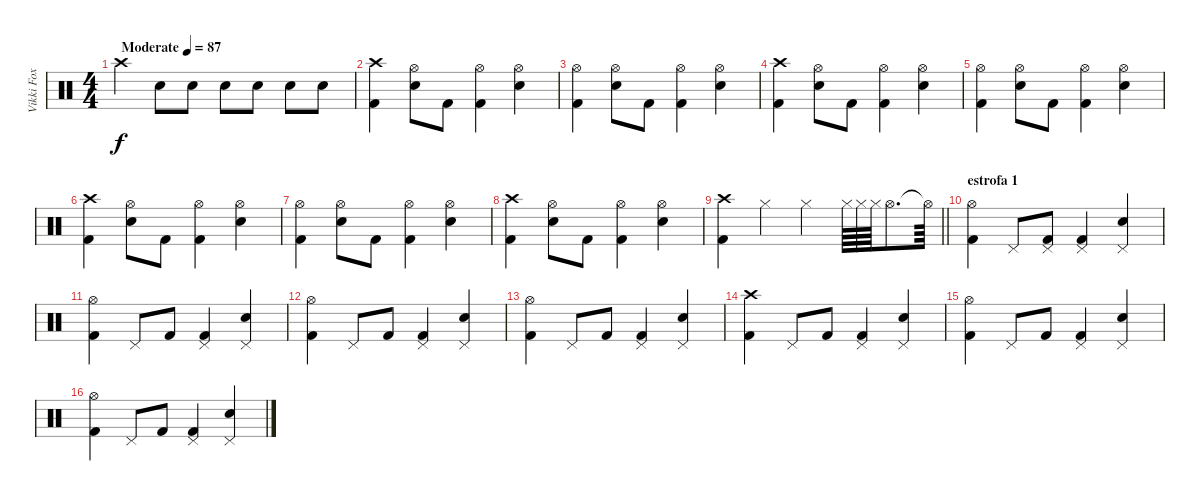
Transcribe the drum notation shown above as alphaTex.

\track ("Vikki Fox" "Vikki Fox") {instrument percussion}
\staff {score}
\articulation defaults
\ts (4 4)
\tempo (87 "Moderate")
\clef neutral
\ks c "Crash high (hit)".4{dy f} "Snare (hit) 2".8 "Snare (hit) 2".8 "Snare (hit) 2".8 "Snare (hit) 2".8 "Snare (hit) 2".8 "Snare (hit) 2".8
|
("Crash high (hit)" "Kick (hit) 2").4 ("Hi-Hat (open)" "Snare (hit) 2").8 "Kick (hit) 2".8 ("Hi-Hat (open)" "Kick (hit) 2").4 ("Hi-Hat (open)" "Snare (hit) 2").4 |
("Hi-Hat (open)" "Kick (hit) 2").4 ("Hi-Hat (open)" "Snare (hit) 2").8 "Kick (hit) 2".8 ("Hi-Hat (open)" "Kick (hit) 2").4 ("Hi-Hat (open)" "Snare (hit) 2").4 |
("Crash high (hit)" "Kick (hit) 2").4 ("Hi-Hat (open)" "Snare (hit) 2").8 "Kick (hit) 2".8 ("Hi-Hat (open)" "Kick (hit) 2").4 ("Hi-Hat (open)" "Snare (hit) 2").4 |
("Hi-Hat (open)" "Kick (hit) 2").4 ("Hi-Hat (open)" "Snare (hit) 2").8 "Kick (hit) 2".8 ("Hi-Hat (open)" "Kick (hit) 2").4 ("Hi-Hat (open)" "Snare (hit) 2").4 |
("Crash high (hit)" "Kick (hit) 2").4 ("Hi-Hat (open)" "Snare (hit) 2").8 "Kick (hit) 2".8 ("Hi-Hat (open)" "Kick (hit) 2").4 ("Hi-Hat (open)" "Snare (hit) 2").4 |
("Hi-Hat (open)" "Kick (hit) 2").4 ("Hi-Hat (open)" "Snare (hit) 2").8 "Kick (hit) 2".8 ("Hi-Hat (open)" "Kick (hit) 2").4 ("Hi-Hat (open)" "Snare (hit) 2").4 |
("Crash high (hit)" "Kick (hit) 2").4 ("Hi-Hat (open)" "Snare (hit) 2").8 "Kick (hit) 2".8 ("Hi-Hat (open)" "Kick (hit) 2").4 ("Hi-Hat (open)" "Snare (hit) 2").4 |
\barLineRight lightlight
("Crash high (hit)" "Kick (hit) 2").4 "Hi-Hat (closed)".4 "Hi-Hat (closed)".4 "Hi-Hat (closed)".64 "Hi-Hat (closed)".64 "Hi-Hat (closed)".64 "Hi-Hat (open)".8{d} "Hi-Hat (open)"{t}.64 |
\section ("" "estrofa 1")
("Hi-Hat (open)" "Kick (hit) 2").4 "Pedal Hi-Hat (hit)".8 ("Pedal Hi-Hat (hit)" "Kick (hit) 2").8 ("Pedal Hi-Hat (hit)" "Kick (hit) 2").4 ("Pedal Hi-Hat (hit)" "Snare (hit) 2").4 |
("Hi-Hat (open)" "Kick (hit) 2").4 "Pedal Hi-Hat (hit)".8 "Kick (hit) 2".8 ("Pedal Hi-Hat (hit)" "Kick (hit) 2").4 ("Pedal Hi-Hat (hit)" "Snare (hit) 2").4 |
("Hi-Hat (open)" "Kick (hit) 2").4 "Pedal Hi-Hat (hit)".8 "Kick (hit) 2".8 ("Pedal Hi-Hat (hit)" "Kick (hit) 2").4 ("Pedal Hi-Hat (hit)" "Snare (hit) 2").4 |
("Hi-Hat (open)" "Kick (hit) 2").4 "Pedal Hi-Hat (hit)".8 "Kick (hit) 2".8 ("Pedal Hi-Hat (hit)" "Kick (hit) 2").4 ("Pedal Hi-Hat (hit)" "Snare (hit) 2").4 |
("Crash high (hit)" "Kick (hit) 2").4 "Pedal Hi-Hat (hit)".8 "Kick (hit) 2".8 ("Pedal Hi-Hat (hit)" "Kick (hit) 2").4 ("Pedal Hi-Hat (hit)" "Snare (hit) 2").4 |
("Hi-Hat (open)" "Kick (hit) 2").4 "Pedal Hi-Hat (hit)".8 "Kick (hit) 2".8 ("Pedal Hi-Hat (hit)" "Kick (hit) 2").4 ("Pedal Hi-Hat (hit)" "Snare (hit) 2").4 |
("Hi-Hat (open)" "Kick (hit) 2").4 "Pedal Hi-Hat (hit)".8 "Kick (hit) 2".8 ("Pedal Hi-Hat (hit)" "Kick (hit) 2").4 ("Pedal Hi-Hat (hit)" "Snare (hit) 2").4
